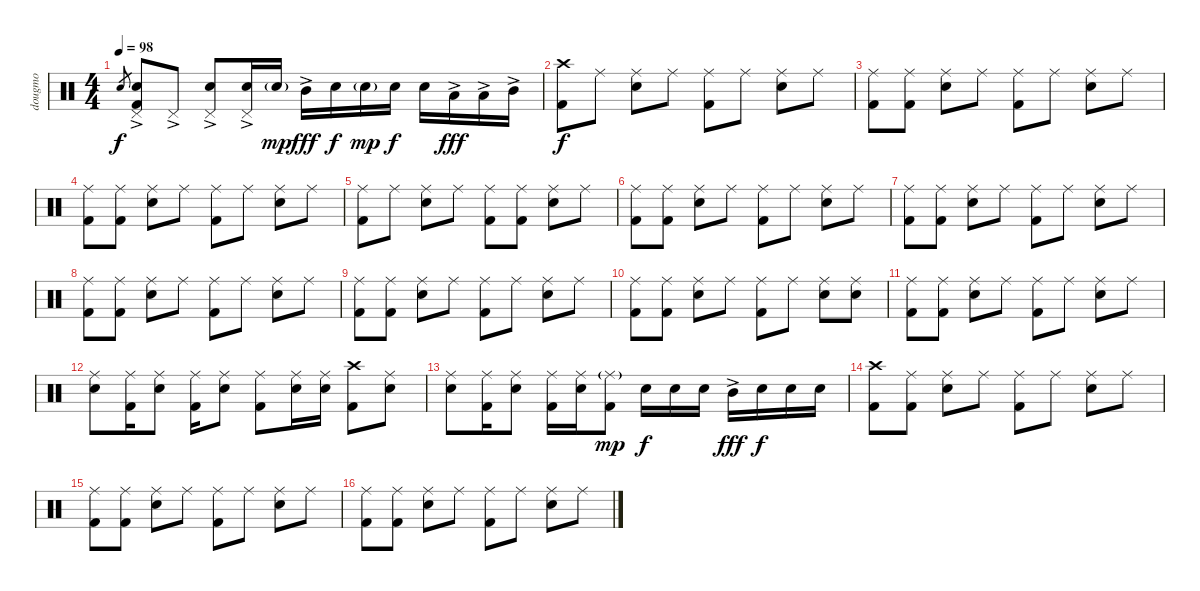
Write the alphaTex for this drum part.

\track ("dougmo" "dougmo") {instrument percussion}
\staff {score}
\articulation defaults
\ts (4 4)
\tempo 98
\clef neutral
\ks c "Electric Snare (hit)".8{gr dy f}
("Pedal Hi-Hat (hit)"{ac} "Electric Snare (hit)" "Kick (hit) 2").8 "Pedal Hi-Hat (hit)"{ac}.8 ("Pedal Hi-Hat (hit)"{ac} "Electric Snare (hit)").8 ("Pedal Hi-Hat (hit)"{ac} "Electric Snare (hit)").16 "Electric Snare (hit)"{g}.16{dy mp} "Mid Tom (hit)"{ac}.16{dy fff} "Electric Snare (hit)".16{dy f} "Electric Snare (hit)"{g}.16{dy mp} "Electric Snare (hit)".16{dy f} "Electric Snare (hit)".16 "Low Tom (hit)"{ac}.16{dy fff} "Low Tom (hit)"{ac}.16 "Mid Tom (hit)"{ac}.16 |
("Crash high (hit)" "Kick (hit) 2").8{dy f} "Ride (middle)".8 ("Ride (middle)" "Electric Snare (hit)").8 "Ride (middle)".8 ("Ride (middle)" "Kick (hit) 2").8 "Ride (middle)".8 ("Ride (middle)" "Electric Snare (hit)").8 "Ride (middle)".8 |
("Ride (middle)" "Kick (hit) 2").8 ("Ride (middle)" "Kick (hit) 2").8 ("Ride (middle)" "Electric Snare (hit)").8 "Ride (middle)".8 ("Ride (middle)" "Kick (hit) 2").8 "Ride (middle)".8 ("Ride (middle)" "Electric Snare (hit)").8 "Ride (middle)".8 |
("Ride (middle)" "Kick (hit) 2").8 ("Ride (middle)" "Kick (hit) 2").8 ("Ride (middle)" "Electric Snare (hit)").8 "Ride (middle)".8 ("Ride (middle)" "Kick (hit) 2").8 "Ride (middle)".8 ("Ride (middle)" "Electric Snare (hit)").8 "Ride (middle)".8 |
("Ride (middle)" "Kick (hit) 2").8 "Ride (middle)".8 ("Ride (middle)" "Electric Snare (hit)").8 "Ride (middle)".8 ("Ride (middle)" "Kick (hit) 2").8 ("Ride (middle)" "Kick (hit) 2").8 ("Ride (middle)" "Electric Snare (hit)").8 "Ride (middle)".8 |
("Ride (middle)" "Kick (hit) 2").8 ("Ride (middle)" "Kick (hit) 2").8 ("Ride (middle)" "Electric Snare (hit)").8 "Ride (middle)".8 ("Ride (middle)" "Kick (hit) 2").8 "Ride (middle)".8 ("Ride (middle)" "Electric Snare (hit)").8 "Ride (middle)".8 |
("Ride (middle)" "Kick (hit) 2").8 ("Ride (middle)" "Kick (hit) 2").8 ("Ride (middle)" "Electric Snare (hit)").8 "Ride (middle)".8 ("Ride (middle)" "Kick (hit) 2").8 "Ride (middle)".8 ("Ride (middle)" "Electric Snare (hit)").8 "Ride (middle)".8 |
("Ride (middle)" "Kick (hit) 2").8 ("Ride (middle)" "Kick (hit) 2").8 ("Ride (middle)" "Electric Snare (hit)").8 "Ride (middle)".8 ("Ride (middle)" "Kick (hit) 2").8 "Ride (middle)".8 ("Ride (middle)" "Electric Snare (hit)").8 "Ride (middle)".8 |
("Ride (middle)" "Kick (hit) 2").8 ("Ride (middle)" "Kick (hit) 2").8 ("Ride (middle)" "Electric Snare (hit)").8 "Ride (middle)".8 ("Ride (middle)" "Kick (hit) 2").8 "Ride (middle)".8 ("Ride (middle)" "Electric Snare (hit)").8 "Ride (middle)".8 |
("Ride (middle)" "Kick (hit) 2").8 ("Ride (middle)" "Kick (hit) 2").8 ("Ride (middle)" "Electric Snare (hit)").8 "Ride (middle)".8 ("Ride (middle)" "Kick (hit) 2").8 "Ride (middle)".8 ("Ride (middle)" "Electric Snare (hit)").8 ("Ride (middle)" "Electric Snare (hit)").8 |
("Ride (middle)" "Kick (hit) 2").8 ("Ride (middle)" "Kick (hit) 2").8 ("Ride (middle)" "Electric Snare (hit)").8 "Ride (middle)".8 ("Ride (middle)" "Kick (hit) 2").8 "Ride (middle)".8 ("Ride (middle)" "Electric Snare (hit)").8 "Ride (middle)".8 |
("Ride (middle)" "Electric Snare (hit)").8 ("Ride (middle)" "Kick (hit) 2").16 ("Ride (middle)" "Electric Snare (hit)").8 ("Ride (middle)" "Kick (hit) 2").16 ("Ride (middle)" "Electric Snare (hit)").8 ("Ride (middle)" "Kick (hit) 2").8 ("Ride (middle)" "Electric Snare (hit)").16 ("Ride (middle)" "Electric Snare (hit)").16 ("Crash high (hit)" "Kick (hit) 2").8 ("Ride (middle)" "Electric Snare (hit)").8 |
("Ride (middle)" "Electric Snare (hit)").8 ("Ride (middle)" "Kick (hit) 2").16 ("Ride (middle)" "Electric Snare (hit)").8 ("Ride (middle)" "Kick (hit) 2").16 ("Ride (middle)" "Electric Snare (hit)").16 ("Ride (middle)"{g} "Kick (hit) 2").8{dy mp} "Electric Snare (hit)".16{dy f} "Electric Snare (hit)".16 "Electric Snare (hit)".16 "Mid Tom (hit)"{ac}.16{dy fff} "Electric Snare (hit)".16{dy f} "Electric Snare (hit)".16 "Electric Snare (hit)".16 |
("Crash high (hit)" "Kick (hit) 2").8 ("Ride (middle)" "Kick (hit) 2").8 ("Ride (middle)" "Electric Snare (hit)").8 "Ride (middle)".8 ("Ride (middle)" "Kick (hit) 2").8 "Ride (middle)".8 ("Ride (middle)" "Electric Snare (hit)").8 "Ride (middle)".8 |
("Ride (middle)" "Kick (hit) 2").8 ("Ride (middle)" "Kick (hit) 2").8 ("Ride (middle)" "Electric Snare (hit)").8 "Ride (middle)".8 ("Ride (middle)" "Kick (hit) 2").8 "Ride (middle)".8 ("Ride (middle)" "Electric Snare (hit)").8 "Ride (middle)".8 |
("Ride (middle)" "Kick (hit) 2").8 ("Ride (middle)" "Kick (hit) 2").8 ("Ride (middle)" "Electric Snare (hit)").8 "Ride (middle)".8 ("Ride (middle)" "Kick (hit) 2").8 "Ride (middle)".8 ("Ride (middle)" "Electric Snare (hit)").8 "Ride (middle)".8
